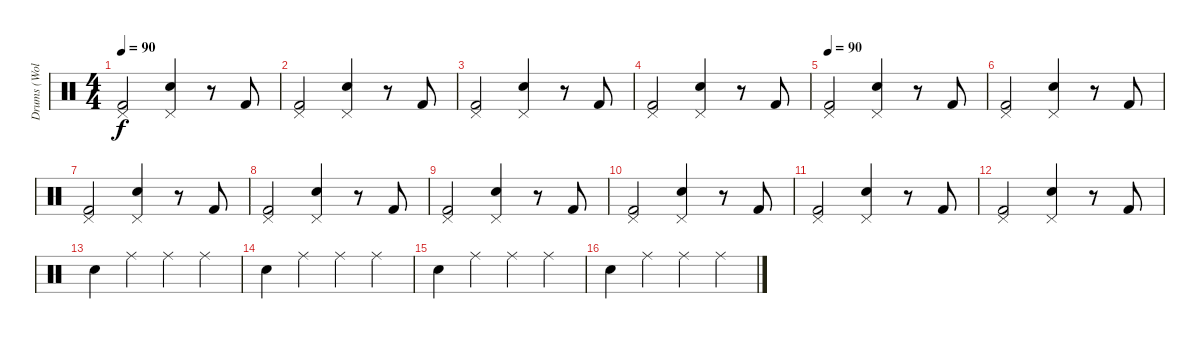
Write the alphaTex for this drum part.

\track ("Drums (Wolf Simons)" "Drums (Wol") {instrument percussion}
\staff {score}
\articulation defaults
\ts (4 4)
\tempo 90
\clef neutral
\ks c
("Pedal Hi-Hat (hit)" "Kick (hit) 2").2{dy f} ("Pedal Hi-Hat (hit)" "Snare (hit) 2").4 r.8 "Kick (hit) 2".8 |
("Pedal Hi-Hat (hit)" "Kick (hit) 2").2 ("Pedal Hi-Hat (hit)" "Snare (hit) 2").4 r.8 "Kick (hit) 2".8 |
("Pedal Hi-Hat (hit)" "Kick (hit) 2").2 ("Pedal Hi-Hat (hit)" "Snare (hit) 2").4 r.8 "Kick (hit) 2".8 |
("Pedal Hi-Hat (hit)" "Kick (hit) 2").2 ("Pedal Hi-Hat (hit)" "Snare (hit) 2").4 r.8 "Kick (hit) 2".8 |
\tempo 90
("Pedal Hi-Hat (hit)" "Kick (hit) 2").2 ("Pedal Hi-Hat (hit)" "Snare (hit) 2").4 r.8 "Kick (hit) 2".8 |
("Pedal Hi-Hat (hit)" "Kick (hit) 2").2 ("Pedal Hi-Hat (hit)" "Snare (hit) 2").4 r.8 "Kick (hit) 2".8 |
("Pedal Hi-Hat (hit)" "Kick (hit) 2").2 ("Pedal Hi-Hat (hit)" "Snare (hit) 2").4 r.8 "Kick (hit) 2".8 |
("Pedal Hi-Hat (hit)" "Kick (hit) 2").2 ("Pedal Hi-Hat (hit)" "Snare (hit) 2").4 r.8 "Kick (hit) 2".8 |
("Pedal Hi-Hat (hit)" "Kick (hit) 2").2 ("Pedal Hi-Hat (hit)" "Snare (hit) 2").4 r.8 "Kick (hit) 2".8 |
("Pedal Hi-Hat (hit)" "Kick (hit) 2").2 ("Pedal Hi-Hat (hit)" "Snare (hit) 2").4 r.8 "Kick (hit) 2".8 |
("Pedal Hi-Hat (hit)" "Kick (hit) 2").2 ("Pedal Hi-Hat (hit)" "Snare (hit) 2").4 r.8 "Kick (hit) 2".8 |
("Pedal Hi-Hat (hit)" "Kick (hit) 2").2 ("Pedal Hi-Hat (hit)" "Snare (hit) 2").4 r.8 "Kick (hit) 2".8 |
"Snare (hit) 2".4 "Ride (middle)".4 "Ride (middle)".4 "Ride (middle)".4 |
"Snare (hit) 2".4 "Ride (middle)".4 "Ride (middle)".4 "Ride (middle)".4 |
"Snare (hit) 2".4 "Ride (middle)".4 "Ride (middle)".4 "Ride (middle)".4 |
"Snare (hit) 2".4 "Ride (middle)".4 "Ride (middle)".4 "Ride (middle)".4
